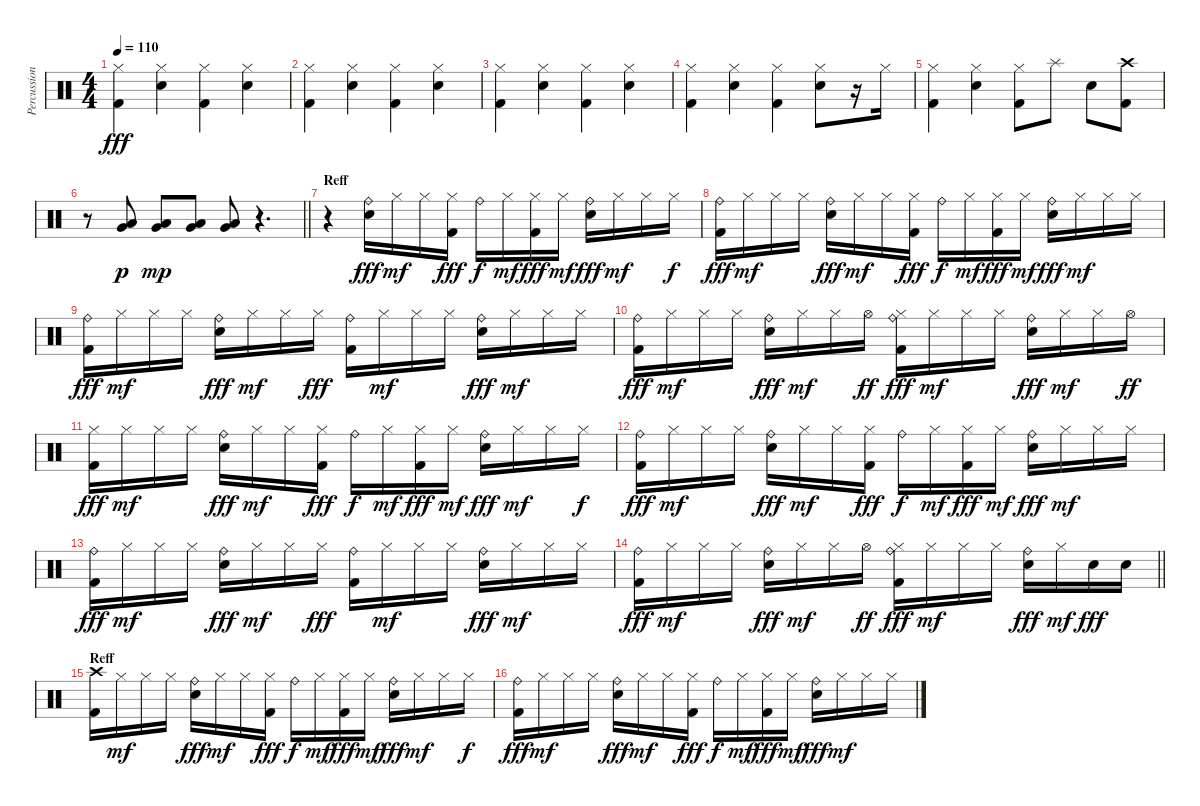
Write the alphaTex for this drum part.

\track ("Percussion" "Percussion") {instrument percussion}
\staff {score}
\articulation defaults
\ts (4 4)
\tempo 110
\clef neutral
\ks c
("Hi-Hat (closed)" "Kick (hit) 2").4{dy fff} ("Hi-Hat (closed)" "Electric Snare (hit)").4 ("Hi-Hat (closed)" "Kick (hit) 2").4 ("Hi-Hat (closed)" "Electric Snare (hit)").4 |
("Hi-Hat (closed)" "Kick (hit) 2").4 ("Hi-Hat (closed)" "Electric Snare (hit)").4 ("Hi-Hat (closed)" "Kick (hit) 2").4 ("Hi-Hat (closed)" "Electric Snare (hit)").4 |
("Hi-Hat (closed)" "Kick (hit) 2").4 ("Hi-Hat (closed)" "Electric Snare (hit)").4 ("Hi-Hat (closed)" "Kick (hit) 2").4 ("Hi-Hat (closed)" "Electric Snare (hit)").4 |
("Hi-Hat (closed)" "Kick (hit) 2").4 ("Hi-Hat (closed)" "Electric Snare (hit)").4 ("Hi-Hat (closed)" "Kick (hit) 2").4 ("Hi-Hat (closed)" "Electric Snare (hit)").8 r.16 "Hi-Hat (closed)".16 |
("Hi-Hat (closed)" "Kick (hit) 2").4 ("Hi-Hat (closed)" "Electric Snare (hit)").4 ("Hi-Hat (closed)" "Kick (hit) 2").8 "Splash (hit)".8 "Electric Snare (hit)".8 ("Crash high (hit)" "Kick (hit) 2").8 |
\barLineRight lightlight
r.8 ("Very Low Tom (hit)" "Low Floor Tom (hit)").8{dy p} ("Very Low Tom (hit)" "Low Floor Tom (hit)").8{dy mp} ("Very Low Tom (hit)" "Low Floor Tom (hit)").8 ("Very Low Tom (hit)" "Low Floor Tom (hit)").8 r.4{d} |
\section ("" "Reff")
r.4 ("Ride (bell)" "Electric Snare (hit)").16{dy fff} "Hi-Hat (closed)".16{dy mf} "Hi-Hat (closed)".16 ("Hi-Hat (closed)" "Kick (hit) 2").16{dy fff} "Ride (bell)".16{dy f} "Hi-Hat (closed)".16{dy mf} ("Hi-Hat (closed)" "Kick (hit) 2").16{dy fff} "Hi-Hat (closed)".16{dy mf} ("Ride (bell)" "Electric Snare (hit)").16{dy fff} "Hi-Hat (closed)".16{dy mf} "Hi-Hat (closed)".16 "Hi-Hat (closed)".16{dy f} |
("Ride (bell)" "Kick (hit) 2").16{dy fff} "Hi-Hat (closed)".16{dy mf} "Hi-Hat (closed)".16 "Hi-Hat (closed)".16 ("Ride (bell)" "Electric Snare (hit)").16{dy fff} "Hi-Hat (closed)".16{dy mf} "Hi-Hat (closed)".16 ("Hi-Hat (closed)" "Kick (hit) 2").16{dy fff} "Ride (bell)".16{dy f} "Hi-Hat (closed)".16{dy mf} ("Hi-Hat (closed)" "Kick (hit) 2").16{dy fff} "Hi-Hat (closed)".16{dy mf} ("Ride (bell)" "Electric Snare (hit)").16{dy fff} "Hi-Hat (closed)".16{dy mf} "Hi-Hat (closed)".16 "Hi-Hat (closed)".16 |
("Ride (bell)" "Kick (hit) 2").16{dy fff} "Hi-Hat (closed)".16{dy mf} "Hi-Hat (closed)".16 "Hi-Hat (closed)".16 ("Ride (bell)" "Electric Snare (hit)").16{dy fff} "Hi-Hat (closed)".16{dy mf} "Hi-Hat (closed)".16 "Hi-Hat (closed)".16{dy fff} ("Ride (bell)" "Kick (hit) 2").16 "Hi-Hat (closed)".16{dy mf} "Hi-Hat (closed)".16 "Hi-Hat (closed)".16 ("Ride (bell)" "Electric Snare (hit)").16{dy fff} "Hi-Hat (closed)".16{dy mf} "Hi-Hat (closed)".16 "Hi-Hat (closed)".16 |
("Ride (bell)" "Kick (hit) 2").16{dy fff} "Hi-Hat (closed)".16{dy mf} "Hi-Hat (closed)".16 "Hi-Hat (closed)".16 ("Ride (bell)" "Electric Snare (hit)").16{dy fff} "Hi-Hat (closed)".16{dy mf} "Hi-Hat (closed)".16 "Hi-Hat (open)".16{dy ff} ("Hi-Hat (closed)" "Ride (bell)" "Kick (hit) 2").16{dy fff} "Hi-Hat (closed)".16{dy mf} "Hi-Hat (closed)".16 "Hi-Hat (closed)".16 ("Ride (bell)" "Electric Snare (hit)").16{dy fff} "Hi-Hat (closed)".16{dy mf} "Hi-Hat (closed)".16 "Hi-Hat (open)".16{dy ff} |
("Hi-Hat (closed)" "Kick (hit) 2").16{dy fff} "Hi-Hat (closed)".16{dy mf} "Hi-Hat (closed)".16 "Hi-Hat (closed)".16 ("Ride (bell)" "Electric Snare (hit)").16{dy fff} "Hi-Hat (closed)".16{dy mf} "Hi-Hat (closed)".16 ("Hi-Hat (closed)" "Kick (hit) 2").16{dy fff} "Ride (bell)".16{dy f} "Hi-Hat (closed)".16{dy mf} ("Hi-Hat (closed)" "Kick (hit) 2").16{dy fff} "Hi-Hat (closed)".16{dy mf} ("Ride (bell)" "Electric Snare (hit)").16{dy fff} "Hi-Hat (closed)".16{dy mf} "Hi-Hat (closed)".16 "Hi-Hat (closed)".16{dy f} |
("Ride (bell)" "Kick (hit) 2").16{dy fff} "Hi-Hat (closed)".16{dy mf} "Hi-Hat (closed)".16 "Hi-Hat (closed)".16 ("Ride (bell)" "Electric Snare (hit)").16{dy fff} "Hi-Hat (closed)".16{dy mf} "Hi-Hat (closed)".16 ("Hi-Hat (closed)" "Kick (hit) 2").16{dy fff} "Ride (bell)".16{dy f} "Hi-Hat (closed)".16{dy mf} ("Hi-Hat (closed)" "Kick (hit) 2").16{dy fff} "Hi-Hat (closed)".16{dy mf} ("Ride (bell)" "Electric Snare (hit)").16{dy fff} "Hi-Hat (closed)".16{dy mf} "Hi-Hat (closed)".16 "Hi-Hat (closed)".16 |
("Ride (bell)" "Kick (hit) 2").16{dy fff} "Hi-Hat (closed)".16{dy mf} "Hi-Hat (closed)".16 "Hi-Hat (closed)".16 ("Ride (bell)" "Electric Snare (hit)").16{dy fff} "Hi-Hat (closed)".16{dy mf} "Hi-Hat (closed)".16 "Hi-Hat (closed)".16{dy fff} ("Ride (bell)" "Kick (hit) 2").16 "Hi-Hat (closed)".16{dy mf} "Hi-Hat (closed)".16 "Hi-Hat (closed)".16 ("Ride (bell)" "Electric Snare (hit)").16{dy fff} "Hi-Hat (closed)".16{dy mf} "Hi-Hat (closed)".16 "Hi-Hat (closed)".16 |
\barLineRight lightlight
("Ride (bell)" "Kick (hit) 2").16{dy fff} "Hi-Hat (closed)".16{dy mf} "Hi-Hat (closed)".16 "Hi-Hat (closed)".16 ("Ride (bell)" "Electric Snare (hit)").16{dy fff} "Hi-Hat (closed)".16{dy mf} "Hi-Hat (closed)".16 "Hi-Hat (open)".16{dy ff} ("Hi-Hat (closed)" "Ride (bell)" "Kick (hit) 2").16{dy fff} "Hi-Hat (closed)".16{dy mf} "Hi-Hat (closed)".16 "Hi-Hat (closed)".16 ("Ride (bell)" "Electric Snare (hit)").16{dy fff} "Hi-Hat (closed)".16{dy mf} "Electric Snare (hit)".16{dy fff} "Electric Snare (hit)".16 |
\section ("" "Reff")
("Crash high (hit)" "Kick (hit) 2").16 "Hi-Hat (closed)".16{dy mf} "Hi-Hat (closed)".16 "Hi-Hat (closed)".16 ("Ride (bell)" "Electric Snare (hit)").16{dy fff} "Hi-Hat (closed)".16{dy mf} "Hi-Hat (closed)".16 ("Hi-Hat (closed)" "Kick (hit) 2").16{dy fff} "Ride (bell)".16{dy f} "Hi-Hat (closed)".16{dy mf} ("Hi-Hat (closed)" "Kick (hit) 2").16{dy fff} "Hi-Hat (closed)".16{dy mf} ("Ride (bell)" "Electric Snare (hit)").16{dy fff} "Hi-Hat (closed)".16{dy mf} "Hi-Hat (closed)".16 "Hi-Hat (closed)".16{dy f} |
("Ride (bell)" "Kick (hit) 2").16{dy fff} "Hi-Hat (closed)".16{dy mf} "Hi-Hat (closed)".16 "Hi-Hat (closed)".16 ("Ride (bell)" "Electric Snare (hit)").16{dy fff} "Hi-Hat (closed)".16{dy mf} "Hi-Hat (closed)".16 ("Hi-Hat (closed)" "Kick (hit) 2").16{dy fff} "Ride (bell)".16{dy f} "Hi-Hat (closed)".16{dy mf} ("Hi-Hat (closed)" "Kick (hit) 2").16{dy fff} "Hi-Hat (closed)".16{dy mf} ("Ride (bell)" "Electric Snare (hit)").16{dy fff} "Hi-Hat (closed)".16{dy mf} "Hi-Hat (closed)".16 "Hi-Hat (closed)".16
